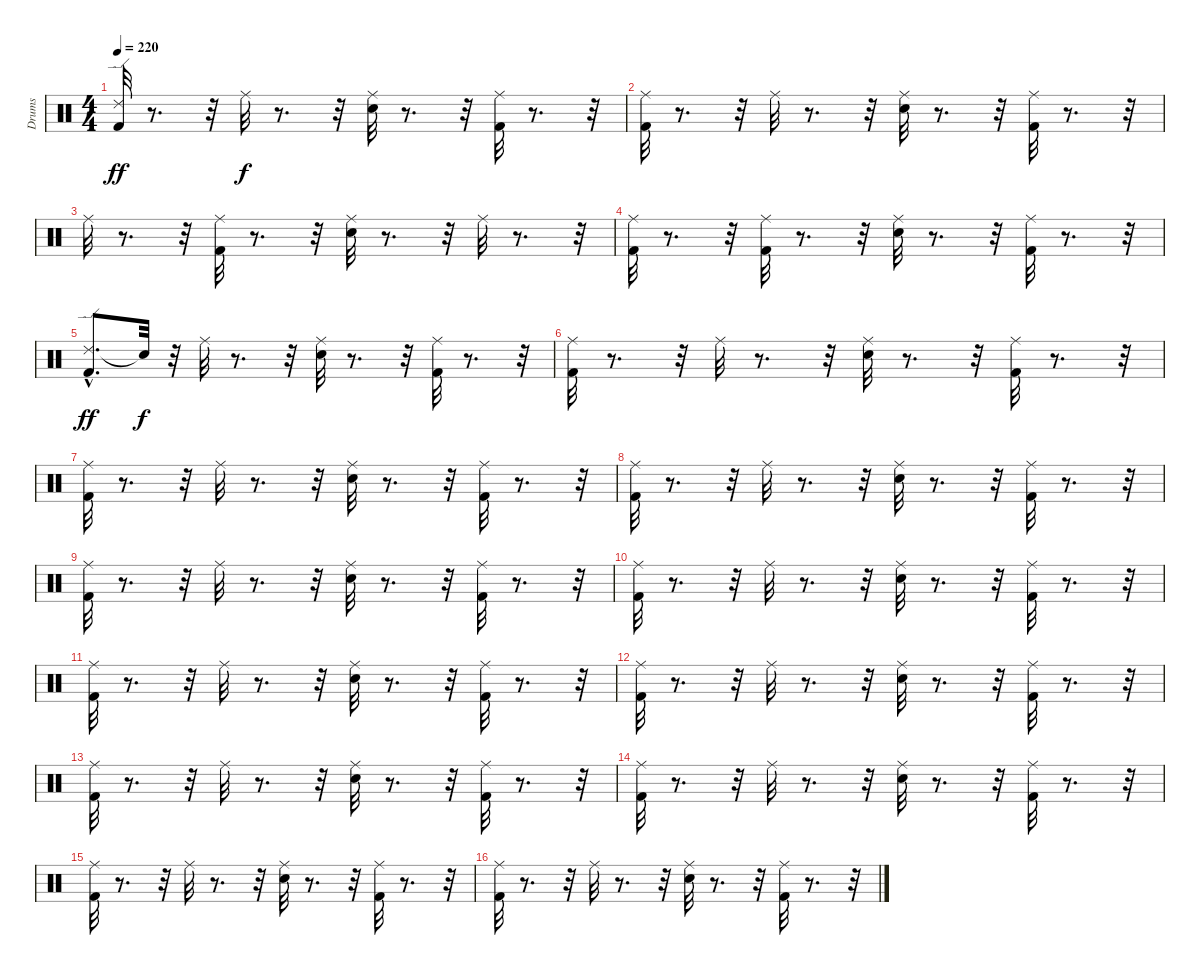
\track ("Drums" "Drums") {instrument percussion}
\staff {score}
\articulation defaults
\ts (4 4)
\tempo 220
\clef neutral
\ks c
("Ride (edge) 2" "Kick (hit) 2").32{dy ff} r.8{d} r.32 "Ride (middle)".32{dy f} r.8{d} r.32 ("Ride (middle)" "Snare (hit) 2").32 r.8{d} r.32 ("Ride (middle)" "Kick (hit) 2").32 r.8{d} r.32 |
("Ride (middle)" "Kick (hit) 2").32 r.8{d} r.32 "Ride (middle)".32 r.8{d} r.32 ("Ride (middle)" "Snare (hit) 2").32 r.8{d} r.32 ("Kick (hit) 2" "Ride (middle)").32 r.8{d} r.32 |
"Ride (middle)".32 r.8{d} r.32 ("Kick (hit) 2" "Ride (middle)").32 r.8{d} r.32 ("Ride (middle)" "Snare (hit) 2").32 r.8{d} r.32 "Ride (middle)".32 r.8{d} r.32 |
("Ride (middle)" "Kick (hit) 2").32 r.8{d} r.32 ("Ride (middle)" "Kick (hit) 2").32 r.8{d} r.32 ("Ride (middle)" "Snare (hit) 2").32 r.8{d} r.32 ("Ride (middle)" "Kick (hit) 2").32 r.8{d} r.32 |
("Ride (edge) 2"{hac} "Kick (hit) 2").8{d dy ff} "Snare (hit)"{t}.32{dy f} r.32 "Ride (middle)".32 r.8{d} r.32 ("Ride (middle)" "Snare (hit) 2").32 r.8{d} r.32 ("Ride (middle)" "Kick (hit) 2").32 r.8{d} r.32 |
("Ride (middle)" "Kick (hit) 2").32 r.8{d} r.32 "Ride (middle)".32 r.8{d} r.32 ("Ride (middle)" "Snare (hit) 2").32 r.8{d} r.32 ("Ride (middle)" "Kick (hit) 2").32 r.8{d} r.32 |
("Ride (middle)" "Kick (hit) 2").32 r.8{d} r.32 "Ride (middle)".32 r.8{d} r.32 ("Ride (middle)" "Snare (hit) 2").32 r.8{d} r.32 ("Ride (middle)" "Kick (hit) 2").32 r.8{d} r.32 |
("Ride (middle)" "Kick (hit) 2").32 r.8{d} r.32 "Ride (middle)".32 r.8{d} r.32 ("Ride (middle)" "Snare (hit) 2").32 r.8{d} r.32 ("Ride (middle)" "Kick (hit) 2").32 r.8{d} r.32 |
("Ride (middle)" "Kick (hit) 2").32 r.8{d} r.32 "Ride (middle)".32 r.8{d} r.32 ("Ride (middle)" "Snare (hit) 2").32 r.8{d} r.32 ("Ride (middle)" "Kick (hit) 2").32 r.8{d} r.32 |
("Ride (middle)" "Kick (hit) 2").32 r.8{d} r.32 "Ride (middle)".32 r.8{d} r.32 ("Ride (middle)" "Snare (hit) 2").32 r.8{d} r.32 ("Ride (middle)" "Kick (hit) 2").32 r.8{d} r.32 |
("Ride (middle)" "Kick (hit) 2").32 r.8{d} r.32 "Ride (middle)".32 r.8{d} r.32 ("Ride (middle)" "Snare (hit) 2").32 r.8{d} r.32 ("Ride (middle)" "Kick (hit) 2").32 r.8{d} r.32 |
("Ride (middle)" "Kick (hit) 2").32 r.8{d} r.32 "Ride (middle)".32 r.8{d} r.32 ("Ride (middle)" "Snare (hit) 2").32 r.8{d} r.32 ("Ride (middle)" "Kick (hit) 2").32 r.8{d} r.32 |
("Ride (middle)" "Kick (hit) 2").32 r.8{d} r.32 "Ride (middle)".32 r.8{d} r.32 ("Ride (middle)" "Snare (hit) 2").32 r.8{d} r.32 ("Ride (middle)" "Kick (hit) 2").32 r.8{d} r.32 |
("Ride (middle)" "Kick (hit) 2").32 r.8{d} r.32 "Ride (middle)".32 r.8{d} r.32 ("Ride (middle)" "Snare (hit) 2").32 r.8{d} r.32 ("Ride (middle)" "Kick (hit) 2").32 r.8{d} r.32 |
("Ride (middle)" "Kick (hit) 2").32 r.8{d} r.32 "Ride (middle)".32 r.8{d} r.32 ("Ride (middle)" "Snare (hit) 2").32 r.8{d} r.32 ("Ride (middle)" "Kick (hit) 2").32 r.8{d} r.32 |
("Ride (middle)" "Kick (hit) 2").32 r.8{d} r.32 "Ride (middle)".32 r.8{d} r.32 ("Ride (middle)" "Snare (hit) 2").32 r.8{d} r.32 ("Ride (middle)" "Kick (hit) 2").32 r.8{d} r.32
